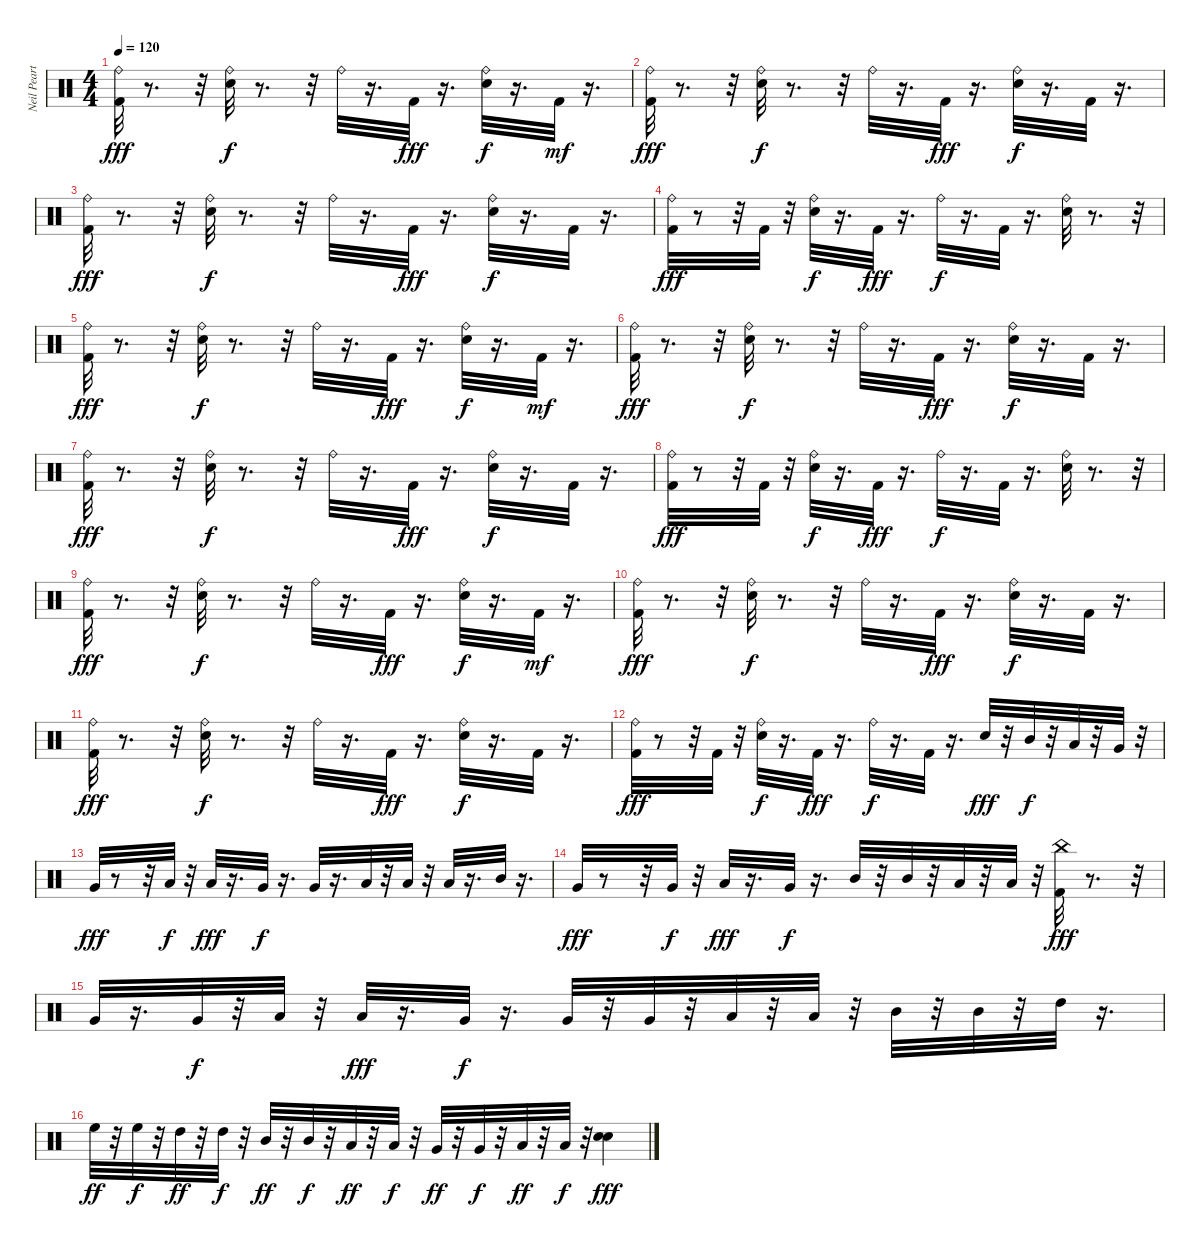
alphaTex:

\track ("Neil Peart" "Neil Peart") {instrument percussion}
\staff {score}
\articulation defaults
\ts (4 4)
\tempo 120
\clef neutral
\ks c
("Ride (bell)" "Kick (hit) 2").32{dy fff} r.8{d} r.32 ("Ride (bell)" "Snare (hit) 2").32{dy f} r.8{d} r.32 "Ride (bell)".32 r.16{d} "Kick (hit) 2".32{dy fff} r.16{d} ("Ride (bell)" "Snare (hit) 2").32{dy f} r.16{d} "Kick (hit) 2".32{dy mf} r.16{d} |
("Ride (bell)" "Kick (hit) 2").32{dy fff} r.8{d} r.32 ("Ride (bell)" "Snare (hit) 2").32{dy f} r.8{d} r.32 "Ride (bell)".32 r.16{d} "Kick (hit) 2".32{dy fff} r.16{d} ("Ride (bell)" "Snare (hit) 2").32{dy f} r.16{d} "Kick (hit) 2".32 r.16{d} |
("Ride (bell)" "Kick (hit) 2").32{dy fff} r.8{d} r.32 ("Ride (bell)" "Snare (hit) 2").32{dy f} r.8{d} r.32 "Ride (bell)".32 r.16{d} "Kick (hit) 2".32{dy fff} r.16{d} ("Ride (bell)" "Snare (hit) 2").32{dy f} r.16{d} "Kick (hit) 2".32 r.16{d} |
("Ride (bell)" "Kick (hit) 2").32{dy fff} r.8 r.32 "Kick (hit) 2".32 r.32 ("Ride (bell)" "Snare (hit) 2").32{dy f} r.16{d} "Kick (hit) 2".32{dy fff} r.16{d} "Ride (bell)".32{dy f} r.16{d} "Kick (hit) 2".32 r.16{d} ("Ride (bell)" "Snare (hit) 2").32 r.8{d} r.32 |
("Ride (bell)" "Kick (hit) 2").32{dy fff} r.8{d} r.32 ("Ride (bell)" "Snare (hit) 2").32{dy f} r.8{d} r.32 "Ride (bell)".32 r.16{d} "Kick (hit) 2".32{dy fff} r.16{d} ("Ride (bell)" "Snare (hit) 2").32{dy f} r.16{d} "Kick (hit) 2".32{dy mf} r.16{d} |
("Ride (bell)" "Kick (hit) 2").32{dy fff} r.8{d} r.32 ("Ride (bell)" "Snare (hit) 2").32{dy f} r.8{d} r.32 "Ride (bell)".32 r.16{d} "Kick (hit) 2".32{dy fff} r.16{d} ("Ride (bell)" "Snare (hit) 2").32{dy f} r.16{d} "Kick (hit) 2".32 r.16{d} |
("Ride (bell)" "Kick (hit) 2").32{dy fff} r.8{d} r.32 ("Ride (bell)" "Snare (hit) 2").32{dy f} r.8{d} r.32 "Ride (bell)".32 r.16{d} "Kick (hit) 2".32{dy fff} r.16{d} ("Ride (bell)" "Snare (hit) 2").32{dy f} r.16{d} "Kick (hit) 2".32 r.16{d} |
("Ride (bell)" "Kick (hit) 2").32{dy fff} r.8 r.32 "Kick (hit) 2".32 r.32 ("Ride (bell)" "Snare (hit) 2").32{dy f} r.16{d} "Kick (hit) 2".32{dy fff} r.16{d} "Ride (bell)".32{dy f} r.16{d} "Kick (hit) 2".32 r.16{d} ("Ride (bell)" "Snare (hit) 2").32 r.8{d} r.32 |
("Ride (bell)" "Kick (hit) 2").32{dy fff} r.8{d} r.32 ("Ride (bell)" "Snare (hit) 2").32{dy f} r.8{d} r.32 "Ride (bell)".32 r.16{d} "Kick (hit) 2".32{dy fff} r.16{d} ("Ride (bell)" "Snare (hit) 2").32{dy f} r.16{d} "Kick (hit) 2".32{dy mf} r.16{d} |
("Ride (bell)" "Kick (hit) 2").32{dy fff} r.8{d} r.32 ("Ride (bell)" "Snare (hit) 2").32{dy f} r.8{d} r.32 "Ride (bell)".32 r.16{d} "Kick (hit) 2".32{dy fff} r.16{d} ("Ride (bell)" "Snare (hit) 2").32{dy f} r.16{d} "Kick (hit) 2".32 r.16{d} |
("Ride (bell)" "Kick (hit) 2").32{dy fff} r.8{d} r.32 ("Ride (bell)" "Snare (hit) 2").32{dy f} r.8{d} r.32 "Ride (bell)".32 r.16{d} "Kick (hit) 2".32{dy fff} r.16{d} ("Ride (bell)" "Snare (hit) 2").32{dy f} r.16{d} "Kick (hit) 2".32 r.16{d} |
("Ride (bell)" "Kick (hit) 2").32{dy fff} r.8 r.32 "Kick (hit) 2".32 r.32 ("Ride (bell)" "Snare (hit) 2").32{dy f} r.16{d} "Kick (hit) 2".32{dy fff} r.16{d} "Ride (bell)".32{dy f} r.16{d} "Kick (hit) 2".32 r.16{d} "Snare (hit) 2".32{dy fff} r.32 "Mid Tom (hit)".32{dy f} r.32 "Low Tom (hit)".32 r.32 "Very Low Tom (hit)".32 r.32 |
"Very Low Tom (hit)".32{dy fff} r.8 r.32 "Low Floor Tom (hit)".32{dy f} r.32 "Low Floor Tom (hit)".32{dy fff} r.16{d} "Very Low Tom (hit)".32{dy f} r.16{d} "Very Low Tom (hit)".32 r.16{d} "Low Tom (hit)".32 r.32 "Low Tom (hit)".32 r.32 "Low Tom (hit)".32 r.16{d} "Mid Tom (hit)".32 r.16{d} |
"Very Low Tom (hit)".32{dy fff} r.8 r.32 "Very Low Tom (hit)".32{dy f} r.32 "Low Floor Tom (hit)".32{dy fff} r.16{d} "Very Low Tom (hit)".32{dy f} r.16{d} "Mid Tom (hit)".32 r.32 "Mid Tom (hit)".32 r.32 "Low Tom (hit)".32 r.32 "Low Tom (hit)".32 r.32 ("Kick (hit) 2" "China (hit)").32{dy fff} r.8{d} r.32 |
"Very Low Tom (hit)".32 r.16{d} "Very Low Tom (hit)".32{dy f} r.32 "Low Floor Tom (hit)".32 r.32 "Low Floor Tom (hit)".32{dy fff} r.16{d} "Very Low Tom (hit)".32{dy f} r.16{d} "Very Low Tom (hit)".32 r.32 "Very Low Tom (hit)".32 r.32 "Low Tom (hit)".32 r.32 "Low Tom (hit)".32 r.32 "Mid Tom (hit)".32 r.32 "Mid Tom (hit)".32 r.32 "High Tom (hit)".32 r.16{d} |
"High Floor Tom (hit)".32{dy ff} r.32 "High Floor Tom (hit)".32{dy f} r.32 "High Tom (hit)".32{dy ff} r.32 "High Tom (hit)".32{dy f} r.32 "Mid Tom (hit)".32{dy ff} r.32 "Mid Tom (hit)".32{dy f} r.32 "Low Tom (hit)".32{dy ff} r.32 "Low Tom (hit)".32{dy f} r.32 "Very Low Tom (hit)".32{dy ff} r.32 "Very Low Tom (hit)".32{dy f} r.32 "Low Floor Tom (hit)".32{dy ff} r.32 "Low Floor Tom (hit)".32{dy f} r.32 ("Snare (hit) 2" "Snare (hit) 2").4{dy fff}
